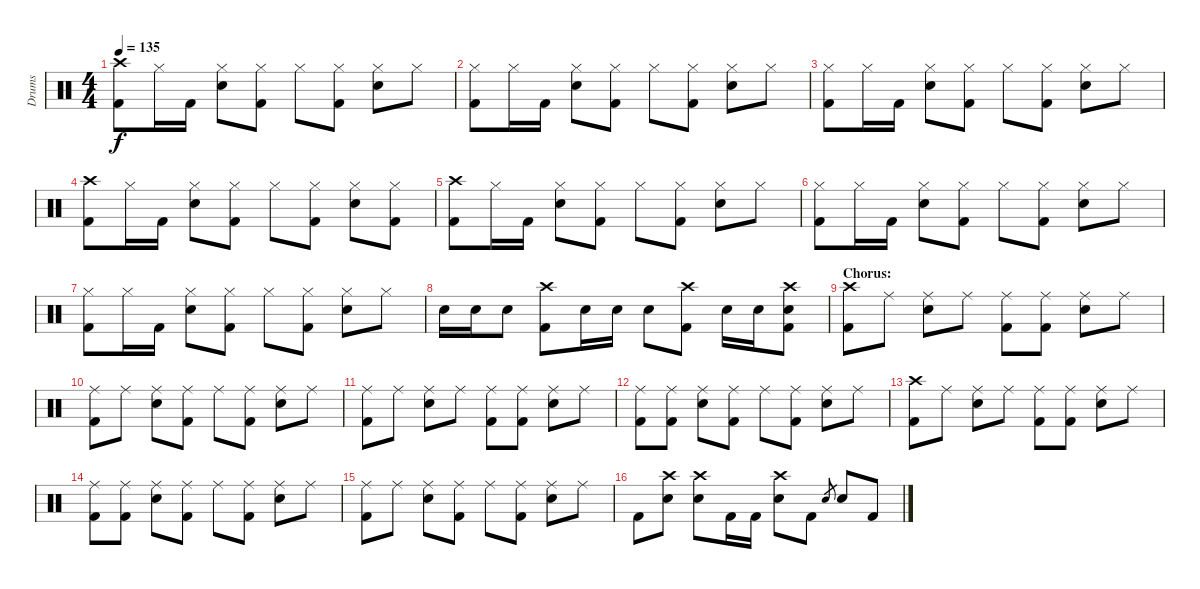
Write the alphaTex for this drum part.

\track ("Drums" "Drums") {instrument percussion}
\staff {score}
\articulation defaults
\ts (4 4)
\tempo 135
\clef neutral
\ks c
("Crash high (hit)" "Kick (hit) 2").8{dy f} "Hi-Hat (closed)".16 "Kick (hit) 2".16 ("Hi-Hat (closed)" "Electric Snare (hit)").8 ("Hi-Hat (closed)" "Kick (hit) 2").8 "Hi-Hat (closed)".8 ("Hi-Hat (closed)" "Kick (hit) 2").8 ("Hi-Hat (closed)" "Electric Snare (hit)").8 "Hi-Hat (closed)".8 |
("Hi-Hat (closed)" "Kick (hit) 2").8 "Hi-Hat (closed)".16 "Kick (hit) 2".16 ("Hi-Hat (closed)" "Electric Snare (hit)").8 ("Hi-Hat (closed)" "Kick (hit) 2").8 "Hi-Hat (closed)".8 ("Hi-Hat (closed)" "Kick (hit) 2").8 ("Hi-Hat (closed)" "Electric Snare (hit)").8 "Hi-Hat (closed)".8 |
("Hi-Hat (closed)" "Kick (hit) 2").8 "Hi-Hat (closed)".16 "Kick (hit) 2".16 ("Hi-Hat (closed)" "Electric Snare (hit)").8 ("Hi-Hat (closed)" "Kick (hit) 2").8 "Hi-Hat (closed)".8 ("Hi-Hat (closed)" "Kick (hit) 2").8 ("Hi-Hat (closed)" "Electric Snare (hit)").8 "Hi-Hat (closed)".8 |
("Crash high (hit)" "Kick (hit) 2").8 "Hi-Hat (closed)".16 "Kick (hit) 2".16 ("Hi-Hat (closed)" "Electric Snare (hit)").8 ("Hi-Hat (closed)" "Kick (hit) 2").8 "Hi-Hat (closed)".8 ("Hi-Hat (closed)" "Kick (hit) 2").8 ("Hi-Hat (closed)" "Electric Snare (hit)").8 ("Hi-Hat (closed)" "Kick (hit) 2").8 |
("Crash high (hit)" "Kick (hit) 2").8 "Hi-Hat (closed)".16 "Kick (hit) 2".16 ("Hi-Hat (closed)" "Electric Snare (hit)").8 ("Hi-Hat (closed)" "Kick (hit) 2").8 "Hi-Hat (closed)".8 ("Hi-Hat (closed)" "Kick (hit) 2").8 ("Hi-Hat (closed)" "Electric Snare (hit)").8 "Hi-Hat (closed)".8 |
("Hi-Hat (closed)" "Kick (hit) 2").8 "Hi-Hat (closed)".16 "Kick (hit) 2".16 ("Hi-Hat (closed)" "Electric Snare (hit)").8 ("Hi-Hat (closed)" "Kick (hit) 2").8 "Hi-Hat (closed)".8 ("Hi-Hat (closed)" "Kick (hit) 2").8 ("Hi-Hat (closed)" "Electric Snare (hit)").8 "Hi-Hat (closed)".8 |
("Hi-Hat (closed)" "Kick (hit) 2").8 "Hi-Hat (closed)".16 "Kick (hit) 2".16 ("Hi-Hat (closed)" "Electric Snare (hit)").8 ("Hi-Hat (closed)" "Kick (hit) 2").8 "Hi-Hat (closed)".8 ("Hi-Hat (closed)" "Kick (hit) 2").8 ("Hi-Hat (closed)" "Electric Snare (hit)").8 "Hi-Hat (closed)".8 |
"Electric Snare (hit)".16 "Electric Snare (hit)".16 "Electric Snare (hit)".8 ("Crash high (hit)" "Kick (hit) 2").8 "Electric Snare (hit)".16 "Electric Snare (hit)".16 "Electric Snare (hit)".8 ("Crash high (hit)" "Kick (hit) 2").8 "Electric Snare (hit)".16 "Electric Snare (hit)".16 ("Crash high (hit)" "Electric Snare (hit)" "Kick (hit) 2").8 |
\section ("" "Chorus:")
("Crash high (hit)" "Kick (hit) 2").8 "Ride (middle)".8 ("Ride (middle)" "Electric Snare (hit)").8 "Ride (middle)".8 ("Ride (middle)" "Kick (hit) 2").8 ("Ride (middle)" "Kick (hit) 2").8 ("Ride (middle)" "Electric Snare (hit)").8 "Ride (middle)".8 |
("Ride (middle)" "Kick (hit) 2").8 "Ride (middle)".8 ("Ride (middle)" "Electric Snare (hit)").8 ("Ride (middle)" "Kick (hit) 2").8 "Ride (middle)".8 ("Ride (middle)" "Kick (hit) 2").8 ("Ride (middle)" "Electric Snare (hit)").8 "Ride (middle)".8 |
("Ride (middle)" "Kick (hit) 2").8 "Ride (middle)".8 ("Ride (middle)" "Electric Snare (hit)").8 "Ride (middle)".8 ("Ride (middle)" "Kick (hit) 2").8 ("Ride (middle)" "Kick (hit) 2").8 ("Ride (middle)" "Electric Snare (hit)").8 "Ride (middle)".8 |
("Ride (middle)" "Kick (hit) 2").8 ("Ride (middle)" "Kick (hit) 2").8 ("Ride (middle)" "Electric Snare (hit)").8 ("Ride (middle)" "Kick (hit) 2").8 "Ride (middle)".8 ("Ride (middle)" "Kick (hit) 2").8 ("Ride (middle)" "Electric Snare (hit)").8 "Ride (middle)".8 |
("Crash high (hit)" "Kick (hit) 2").8 "Ride (middle)".8 ("Ride (middle)" "Electric Snare (hit)").8 "Ride (middle)".8 ("Ride (middle)" "Kick (hit) 2").8 ("Ride (middle)" "Kick (hit) 2").8 ("Ride (middle)" "Electric Snare (hit)").8 "Ride (middle)".8 |
("Ride (middle)" "Kick (hit) 2").8 ("Ride (middle)" "Kick (hit) 2").8 ("Ride (middle)" "Electric Snare (hit)").8 ("Ride (middle)" "Kick (hit) 2").8 "Ride (middle)".8 ("Ride (middle)" "Kick (hit) 2").8 ("Ride (middle)" "Electric Snare (hit)").8 "Ride (middle)".8 |
("Ride (middle)" "Kick (hit) 2").8 "Ride (middle)".8 ("Ride (middle)" "Electric Snare (hit)").8 ("Ride (middle)" "Kick (hit) 2").8 "Ride (middle)".8 ("Ride (middle)" "Kick (hit) 2").8 ("Ride (middle)" "Electric Snare (hit)").8 "Ride (middle)".8 |
"Kick (hit) 2".8 ("Crash high (hit)" "Electric Snare (hit)").8 ("Crash high (hit)" "Electric Snare (hit)").8 "Kick (hit) 2".16 "Kick (hit) 2".16 ("Crash high (hit)" "Electric Snare (hit)").8 "Kick (hit) 2".8 "Electric Snare (hit)".8{gr} "Electric Snare (hit)".8 "Kick (hit) 2".8
